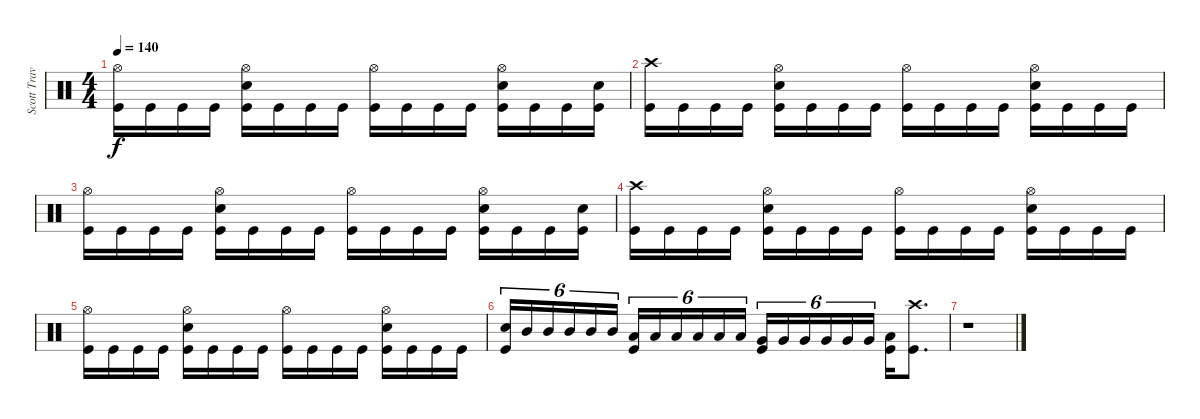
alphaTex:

\track ("Scott Travis" "Scott Trav") {instrument percussion}
\staff {score}
\articulation defaults
\ts (4 4)
\tempo 140
\clef neutral
\ks c
("Hi-Hat (open)" "Kick (hit)").16{dy f} "Kick (hit)".16 "Kick (hit)".16 "Kick (hit)".16 ("Hi-Hat (open)" "Snare (hit) 2" "Kick (hit)").16 "Kick (hit)".16 "Kick (hit)".16 "Kick (hit)".16 ("Hi-Hat (open)" "Kick (hit)").16 "Kick (hit)".16 "Kick (hit)".16 "Kick (hit)".16 ("Hi-Hat (open)" "Snare (hit) 2" "Kick (hit)").16 "Kick (hit)".16 "Kick (hit)".16 ("Snare (hit) 2" "Kick (hit)").16 |
("Crash high (hit)" "Kick (hit)").16 "Kick (hit)".16 "Kick (hit)".16 "Kick (hit)".16 ("Hi-Hat (open)" "Snare (hit) 2" "Kick (hit)").16 "Kick (hit)".16 "Kick (hit)".16 "Kick (hit)".16 ("Hi-Hat (open)" "Kick (hit)").16 "Kick (hit)".16 "Kick (hit)".16 "Kick (hit)".16 ("Hi-Hat (open)" "Snare (hit) 2" "Kick (hit)").16 "Kick (hit)".16 "Kick (hit)".16 "Kick (hit)".16 |
("Hi-Hat (open)" "Kick (hit)").16 "Kick (hit)".16 "Kick (hit)".16 "Kick (hit)".16 ("Hi-Hat (open)" "Snare (hit) 2" "Kick (hit)").16 "Kick (hit)".16 "Kick (hit)".16 "Kick (hit)".16 ("Hi-Hat (open)" "Kick (hit)").16 "Kick (hit)".16 "Kick (hit)".16 "Kick (hit)".16 ("Hi-Hat (open)" "Snare (hit) 2" "Kick (hit)").16 "Kick (hit)".16 "Kick (hit)".16 ("Snare (hit) 2" "Kick (hit)").16 |
("Crash high (hit)" "Kick (hit)").16 "Kick (hit)".16 "Kick (hit)".16 "Kick (hit)".16 ("Hi-Hat (open)" "Snare (hit) 2" "Kick (hit)").16 "Kick (hit)".16 "Kick (hit)".16 "Kick (hit)".16 ("Hi-Hat (open)" "Kick (hit)").16 "Kick (hit)".16 "Kick (hit)".16 "Kick (hit)".16 ("Hi-Hat (open)" "Snare (hit) 2" "Kick (hit)").16 "Kick (hit)".16 "Kick (hit)".16 "Kick (hit)".16 |
("Hi-Hat (open)" "Kick (hit)").16 "Kick (hit)".16 "Kick (hit)".16 "Kick (hit)".16 ("Hi-Hat (open)" "Snare (hit) 2" "Kick (hit)").16 "Kick (hit)".16 "Kick (hit)".16 "Kick (hit)".16 ("Hi-Hat (open)" "Kick (hit)").16 "Kick (hit)".16 "Kick (hit)".16 "Kick (hit)".16 ("Hi-Hat (open)" "Snare (hit) 2" "Kick (hit)").16 "Kick (hit)".16 "Kick (hit)".16 "Kick (hit)".16 |
("Snare (hit) 2" "Kick (hit)").16{tu (6 4)} "Mid Tom (hit)".16{tu (6 4)} "Mid Tom (hit)".16{tu (6 4)} "Mid Tom (hit)".16{tu (6 4)} "Mid Tom (hit)".16{tu (6 4)} "Mid Tom (hit)".16{tu (6 4)} ("Low Tom (hit)" "Kick (hit)").16{tu (6 4)} "Low Tom (hit)".16{tu (6 4)} "Low Tom (hit)".16{tu (6 4)} "Low Tom (hit)".16{tu (6 4)} "Low Tom (hit)".16{tu (6 4)} "Low Tom (hit)".16{tu (6 4)} ("Very Low Tom (hit)" "Kick (hit)").16{tu (6 4)} "Very Low Tom (hit)".16{tu (6 4)} "Very Low Tom (hit)".16{tu (6 4)} "Very Low Tom (hit)".16{tu (6 4)} "Very Low Tom (hit)".16{tu (6 4)} "Very Low Tom (hit)".16{tu (6 4)} ("Low Floor Tom (hit)" "Kick (hit)").16 ("Crash high (hit)" "Kick (hit)").8{d} |
r.1
